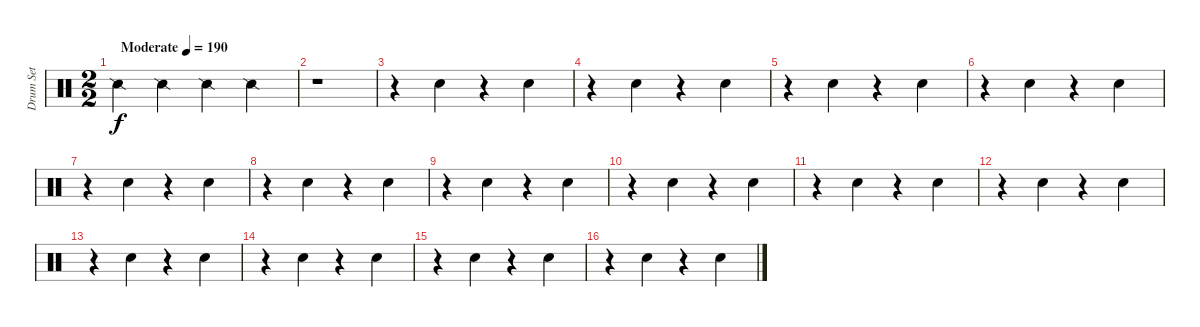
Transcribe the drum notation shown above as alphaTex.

\track ("Drum Set" "Drum Set") {instrument percussion}
\staff {score}
\articulation defaults
\ts (2 2)
\tempo (190 "Moderate")
\clef neutral
\ks c "Snare (side stick) 2".4{dy f} "Snare (side stick) 2".4 "Snare (side stick) 2".4 "Snare (side stick) 2".4
|
r.1 |
r.4 "Hand Clap (hit)".4 r.4 "Hand Clap (hit)".4 |
r.4 "Hand Clap (hit)".4 r.4 "Hand Clap (hit)".4 |
r.4 "Hand Clap (hit)".4 r.4 "Hand Clap (hit)".4 |
r.4 "Hand Clap (hit)".4 r.4 "Hand Clap (hit)".4 |
r.4 "Hand Clap (hit)".4 r.4 "Hand Clap (hit)".4 |
r.4 "Hand Clap (hit)".4 r.4 "Hand Clap (hit)".4 |
r.4 "Hand Clap (hit)".4 r.4 "Hand Clap (hit)".4 |
r.4 "Hand Clap (hit)".4 r.4 "Hand Clap (hit)".4 |
r.4 "Hand Clap (hit)".4 r.4 "Hand Clap (hit)".4 |
r.4 "Hand Clap (hit)".4 r.4 "Hand Clap (hit)".4 |
r.4 "Hand Clap (hit)".4 r.4 "Hand Clap (hit)".4 |
r.4 "Hand Clap (hit)".4 r.4 "Hand Clap (hit)".4 |
r.4 "Hand Clap (hit)".4 r.4 "Hand Clap (hit)".4 |
r.4 "Hand Clap (hit)".4 r.4 "Hand Clap (hit)".4
